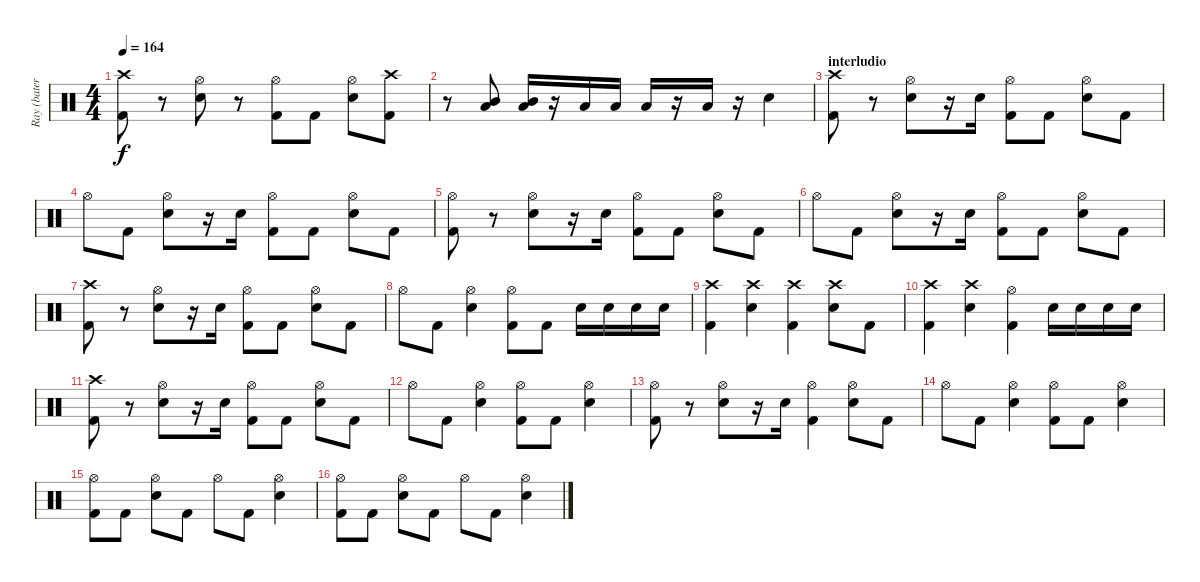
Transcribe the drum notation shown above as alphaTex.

\track ("Ray (batería)" "Ray (bater") {instrument percussion}
\staff {score}
\articulation defaults
\ts (4 4)
\tempo 164
\clef neutral
\ks c
("Crash high (hit)" "Kick (hit) 2").8{dy f} r.8 ("Hi-Hat (open)" "Snare (hit) 2").8 r.8 ("Hi-Hat (open)" "Kick (hit) 2").8 "Kick (hit) 2".8 ("Hi-Hat (open)" "Snare (hit) 2").8 ("Crash high (hit)" "Kick (hit) 2").8 |
r.8 ("Mid Tom (hit)" "Low Tom (hit)").8 ("Mid Tom (hit)" "Low Tom (hit)").16 r.16 "Low Tom (hit)".16 "Low Tom (hit)".16 "Low Floor Tom (hit)".16 r.16 "Low Floor Tom (hit)".16 r.16 "Snare (hit) 2".4 |
\section ("" "interludio")
("Crash high (hit)" "Kick (hit) 2").8 r.8 ("Hi-Hat (open)" "Snare (hit) 2").8 r.16 "Snare (hit) 2".16 ("Hi-Hat (open)" "Kick (hit) 2").8 "Kick (hit) 2".8 ("Hi-Hat (open)" "Snare (hit) 2").8 "Kick (hit) 2".8 |
"Hi-Hat (open)".8 "Kick (hit) 2".8 ("Hi-Hat (open)" "Snare (hit) 2").8 r.16 "Snare (hit) 2".16 ("Hi-Hat (open)" "Kick (hit) 2").8 "Kick (hit) 2".8 ("Hi-Hat (open)" "Snare (hit) 2").8 "Kick (hit) 2".8 |
("Hi-Hat (open)" "Kick (hit) 2").8 r.8 ("Hi-Hat (open)" "Snare (hit) 2").8 r.16 "Snare (hit) 2".16 ("Hi-Hat (open)" "Kick (hit) 2").8 "Kick (hit) 2".8 ("Hi-Hat (open)" "Snare (hit) 2").8 "Kick (hit) 2".8 |
"Hi-Hat (open)".8 "Kick (hit) 2".8 ("Hi-Hat (open)" "Snare (hit) 2").8 r.16 "Snare (hit) 2".16 ("Hi-Hat (open)" "Kick (hit) 2").8 "Kick (hit) 2".8 ("Hi-Hat (open)" "Snare (hit) 2").8 "Kick (hit) 2".8 |
("Crash high (hit)" "Kick (hit) 2").8 r.8 ("Hi-Hat (open)" "Snare (hit) 2").8 r.16 "Snare (hit) 2".16 ("Hi-Hat (open)" "Kick (hit) 2").8 "Kick (hit) 2".8 ("Hi-Hat (open)" "Snare (hit) 2").8 "Kick (hit) 2".8 |
"Hi-Hat (open)".8 "Kick (hit) 2".8 ("Hi-Hat (open)" "Snare (hit) 2").4 ("Hi-Hat (open)" "Kick (hit) 2").8 "Kick (hit) 2".8 "Snare (hit) 2".16 "Snare (hit) 2".16 "Snare (hit) 2".16 "Snare (hit) 2".16 |
("Crash high (hit)" "Kick (hit) 2").4 ("Crash high (hit)" "Snare (hit) 2").4 ("Crash high (hit)" "Kick (hit) 2").4 ("Crash high (hit)" "Snare (hit) 2").8 "Kick (hit) 2".8 |
("Crash high (hit)" "Kick (hit) 2").4 ("Crash high (hit)" "Snare (hit) 2").4 ("Hi-Hat (open)" "Kick (hit) 2").4 "Snare (hit) 2".16 "Snare (hit) 2".16 "Snare (hit) 2".16 "Snare (hit) 2".16 |
("Crash high (hit)" "Kick (hit) 2").8 r.8 ("Hi-Hat (open)" "Snare (hit) 2").8 r.16 "Snare (hit) 2".16 ("Hi-Hat (open)" "Kick (hit) 2").8 "Kick (hit) 2".8 ("Hi-Hat (open)" "Snare (hit) 2").8 "Kick (hit) 2".8 |
"Hi-Hat (open)".8 "Kick (hit) 2".8 ("Hi-Hat (open)" "Snare (hit) 2").4 ("Hi-Hat (open)" "Kick (hit) 2").8 "Kick (hit) 2".8 ("Hi-Hat (open)" "Snare (hit) 2").4 |
("Hi-Hat (open)" "Kick (hit) 2").8 r.8 ("Hi-Hat (open)" "Snare (hit) 2").8 r.16 "Snare (hit) 2".16 ("Hi-Hat (open)" "Kick (hit) 2").4 ("Hi-Hat (open)" "Snare (hit) 2").8 "Kick (hit) 2".8 |
"Hi-Hat (open)".8 "Kick (hit) 2".8 ("Hi-Hat (open)" "Snare (hit) 2").4 ("Hi-Hat (open)" "Kick (hit) 2").8 "Kick (hit) 2".8 ("Hi-Hat (open)" "Snare (hit) 2").4 |
("Hi-Hat (open)" "Kick (hit) 2").8 "Kick (hit) 2".8 ("Hi-Hat (open)" "Snare (hit) 2").8 "Kick (hit) 2".8 "Hi-Hat (open)".8 "Kick (hit) 2".8 ("Hi-Hat (open)" "Snare (hit) 2").4 |
("Hi-Hat (open)" "Kick (hit) 2").8 "Kick (hit) 2".8 ("Hi-Hat (open)" "Snare (hit) 2").8 "Kick (hit) 2".8 "Hi-Hat (open)".8 "Kick (hit) 2".8 ("Hi-Hat (open)" "Snare (hit) 2").4
